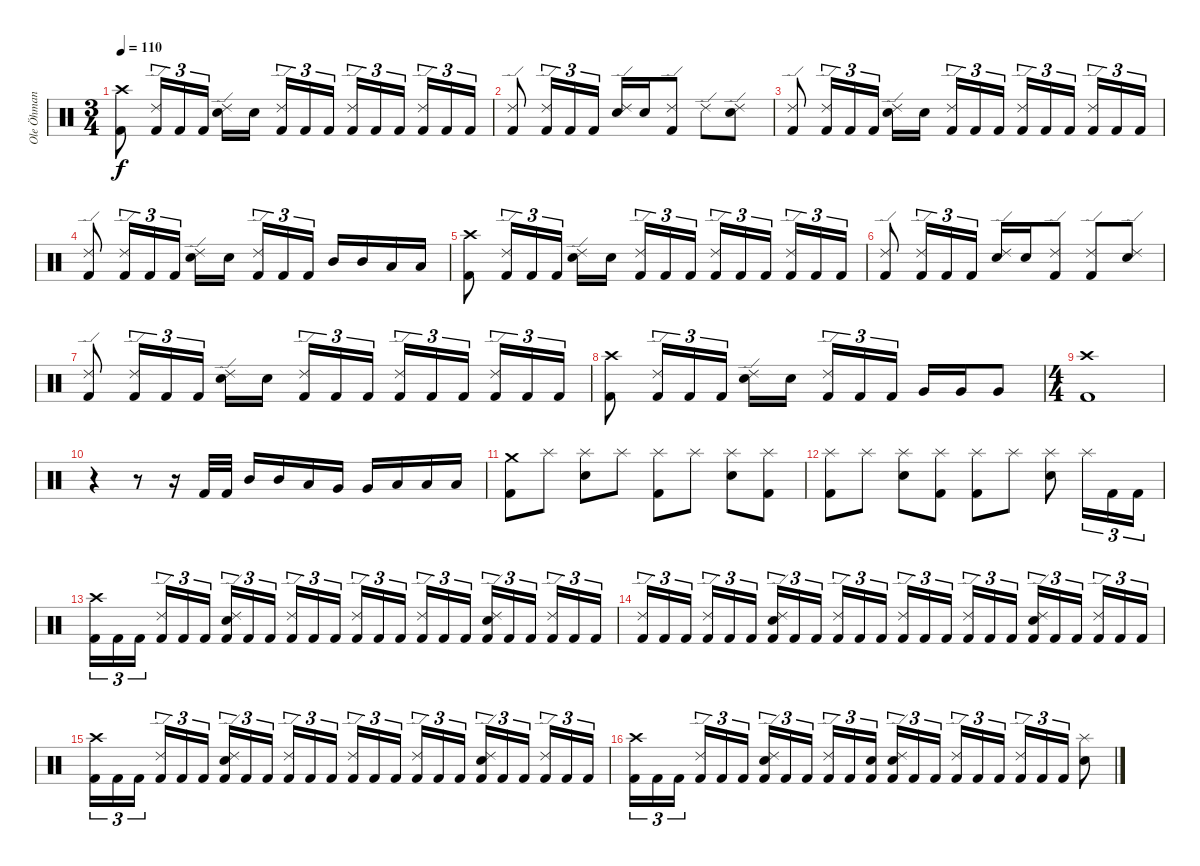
\track ("Ole Öhman" "Ole Öhman") {instrument percussion}
\staff {score}
\articulation defaults
\ts (3 4)
\tempo 110
\clef neutral
\ks c
("Crash high (hit)" "Kick (hit) 2").8{dy f} ("Ride (edge) 2" "Kick (hit) 2").16{tu (3 2)} "Kick (hit) 2".16{tu (3 2)} "Kick (hit) 2".16{tu (3 2)} ("Ride (edge) 2" "Electric Snare (hit)").16 "Electric Snare (hit)".16 ("Ride (edge) 2" "Kick (hit) 2").16{tu (3 2)} "Kick (hit) 2".16{tu (3 2)} "Kick (hit) 2".16{tu (3 2)} ("Ride (edge) 2" "Kick (hit) 2").16{tu (3 2)} "Kick (hit) 2".16{tu (3 2)} "Kick (hit) 2".16{tu (3 2)} ("Ride (edge) 2" "Kick (hit) 2").16{tu (3 2)} "Kick (hit) 2".16{tu (3 2)} "Kick (hit) 2".16{tu (3 2)} |
("Ride (edge) 2" "Kick (hit) 2").8 ("Ride (edge) 2" "Kick (hit) 2").16{tu (3 2)} "Kick (hit) 2".16{tu (3 2)} "Kick (hit) 2".16{tu (3 2)} ("Ride (edge) 2" "Electric Snare (hit)").16 "Electric Snare (hit)".16 ("Ride (edge) 2" "Kick (hit) 2").8 "Ride (edge) 2".8 ("Ride (edge) 2" "Electric Snare (hit)").8 |
("Ride (edge) 2" "Kick (hit) 2").8 ("Ride (edge) 2" "Kick (hit) 2").16{tu (3 2)} "Kick (hit) 2".16{tu (3 2)} "Kick (hit) 2".16{tu (3 2)} ("Ride (edge) 2" "Electric Snare (hit)").16 "Electric Snare (hit)".16 ("Ride (edge) 2" "Kick (hit) 2").16{tu (3 2)} "Kick (hit) 2".16{tu (3 2)} "Kick (hit) 2".16{tu (3 2)} ("Ride (edge) 2" "Kick (hit) 2").16{tu (3 2)} "Kick (hit) 2".16{tu (3 2)} "Kick (hit) 2".16{tu (3 2)} ("Ride (edge) 2" "Kick (hit) 2").16{tu (3 2)} "Kick (hit) 2".16{tu (3 2)} "Kick (hit) 2".16{tu (3 2)} |
("Ride (edge) 2" "Kick (hit) 2").8 ("Ride (edge) 2" "Kick (hit) 2").16{tu (3 2)} "Kick (hit) 2".16{tu (3 2)} "Kick (hit) 2".16{tu (3 2)} ("Ride (edge) 2" "Electric Snare (hit)").16 "Electric Snare (hit)".16 ("Ride (edge) 2" "Kick (hit) 2").16{tu (3 2)} "Kick (hit) 2".16{tu (3 2)} "Kick (hit) 2".16{tu (3 2)} "Mid Tom (hit)".16 "Mid Tom (hit)".16 "Low Tom (hit)".16 "Low Tom (hit)".16 |
("Crash high (hit)" "Kick (hit) 2").8 ("Ride (edge) 2" "Kick (hit) 2").16{tu (3 2)} "Kick (hit) 2".16{tu (3 2)} "Kick (hit) 2".16{tu (3 2)} ("Ride (edge) 2" "Electric Snare (hit)").16 "Electric Snare (hit)".16 ("Ride (edge) 2" "Kick (hit) 2").16{tu (3 2)} "Kick (hit) 2".16{tu (3 2)} "Kick (hit) 2".16{tu (3 2)} ("Ride (edge) 2" "Kick (hit) 2").16{tu (3 2)} "Kick (hit) 2".16{tu (3 2)} "Kick (hit) 2".16{tu (3 2)} ("Ride (edge) 2" "Kick (hit) 2").16{tu (3 2)} "Kick (hit) 2".16{tu (3 2)} "Kick (hit) 2".16{tu (3 2)} |
("Ride (edge) 2" "Kick (hit) 2").8 ("Ride (edge) 2" "Kick (hit) 2").16{tu (3 2)} "Kick (hit) 2".16{tu (3 2)} "Kick (hit) 2".16{tu (3 2)} ("Ride (edge) 2" "Electric Snare (hit)").16 "Electric Snare (hit)".16 ("Ride (edge) 2" "Kick (hit) 2").8 ("Ride (edge) 2" "Kick (hit) 2").8 ("Ride (edge) 2" "Electric Snare (hit)").8 |
("Ride (edge) 2" "Kick (hit) 2").8 ("Ride (edge) 2" "Kick (hit) 2").16{tu (3 2)} "Kick (hit) 2".16{tu (3 2)} "Kick (hit) 2".16{tu (3 2)} ("Ride (edge) 2" "Electric Snare (hit)").16 "Electric Snare (hit)".16 ("Ride (edge) 2" "Kick (hit) 2").16{tu (3 2)} "Kick (hit) 2".16{tu (3 2)} "Kick (hit) 2".16{tu (3 2)} ("Ride (edge) 2" "Kick (hit) 2").16{tu (3 2)} "Kick (hit) 2".16{tu (3 2)} "Kick (hit) 2".16{tu (3 2)} ("Ride (edge) 2" "Kick (hit) 2").16{tu (3 2)} "Kick (hit) 2".16{tu (3 2)} "Kick (hit) 2".16{tu (3 2)} |
("Crash high (hit)" "Kick (hit) 2").8 ("Ride (edge) 2" "Kick (hit) 2").16{tu (3 2)} "Kick (hit) 2".16{tu (3 2)} "Kick (hit) 2".16{tu (3 2)} ("Ride (edge) 2" "Electric Snare (hit)").16 "Electric Snare (hit)".16 ("Ride (edge) 2" "Kick (hit) 2").16{tu (3 2)} "Kick (hit) 2".16{tu (3 2)} "Kick (hit) 2".16{tu (3 2)} "Very Low Tom (hit)".16 "Very Low Tom (hit)".16 "Very Low Tom (hit)".8 |
\ts (4 4)
("Crash high (hit)" "Kick (hit) 2").1 |
r.4 r.8 r.16 "Kick (hit) 2".32 "Kick (hit) 2".32 "Mid Tom (hit)".16 "Mid Tom (hit)".16 "Low Tom (hit)".16 "Very Low Tom (hit)".16 "Very Low Tom (hit)".16 "Low Floor Tom (hit)".16 "Low Floor Tom (hit)".16 "Low Floor Tom (hit)".16 |
("Crash medium (hit)" "Kick (hit) 2").8 "Splash (hit)".8 ("Splash (hit)" "Electric Snare (hit)").8 "Splash (hit)".8 ("Splash (hit)" "Kick (hit) 2").8 "Splash (hit)".8 ("Splash (hit)" "Electric Snare (hit)").8 ("Splash (hit)" "Kick (hit) 2").8 |
("Splash (hit)" "Kick (hit) 2").8 "Splash (hit)".8 ("Splash (hit)" "Electric Snare (hit)").8 ("Splash (hit)" "Kick (hit) 2").8 ("Splash (hit)" "Kick (hit) 2").8 "Splash (hit)".8 ("Splash (hit)" "Electric Snare (hit)").8 "Splash (hit)".16{tu (3 2)} "Kick (hit) 2".16{tu (3 2)} "Kick (hit) 2".16{tu (3 2)} |
("Crash high (hit)" "Kick (hit) 2").16{tu (3 2)} "Kick (hit) 2".16{tu (3 2)} "Kick (hit) 2".16{tu (3 2)} ("Ride (edge) 2" "Kick (hit) 2").16{tu (3 2)} "Kick (hit) 2".16{tu (3 2)} "Kick (hit) 2".16{tu (3 2)} ("Ride (edge) 2" "Electric Snare (hit)" "Kick (hit) 2").16{tu (3 2)} "Kick (hit) 2".16{tu (3 2)} "Kick (hit) 2".16{tu (3 2)} ("Ride (edge) 2" "Kick (hit) 2").16{tu (3 2)} "Kick (hit) 2".16{tu (3 2)} "Kick (hit) 2".16{tu (3 2)} ("Ride (edge) 2" "Kick (hit) 2").16{tu (3 2)} "Kick (hit) 2".16{tu (3 2)} "Kick (hit) 2".16{tu (3 2)} ("Ride (edge) 2" "Kick (hit) 2").16{tu (3 2)} "Kick (hit) 2".16{tu (3 2)} "Kick (hit) 2".16{tu (3 2)} ("Ride (edge) 2" "Electric Snare (hit)" "Kick (hit) 2").16{tu (3 2)} "Kick (hit) 2".16{tu (3 2)} "Kick (hit) 2".16{tu (3 2)} ("Ride (edge) 2" "Kick (hit) 2").16{tu (3 2)} "Kick (hit) 2".16{tu (3 2)} "Kick (hit) 2".16{tu (3 2)} |
("Ride (edge) 2" "Kick (hit) 2").16{tu (3 2)} "Kick (hit) 2".16{tu (3 2)} "Kick (hit) 2".16{tu (3 2)} ("Ride (edge) 2" "Kick (hit) 2").16{tu (3 2)} "Kick (hit) 2".16{tu (3 2)} "Kick (hit) 2".16{tu (3 2)} ("Ride (edge) 2" "Electric Snare (hit)" "Kick (hit) 2").16{tu (3 2)} "Kick (hit) 2".16{tu (3 2)} "Kick (hit) 2".16{tu (3 2)} ("Ride (edge) 2" "Kick (hit) 2").16{tu (3 2)} "Kick (hit) 2".16{tu (3 2)} "Kick (hit) 2".16{tu (3 2)} ("Ride (edge) 2" "Kick (hit) 2").16{tu (3 2)} "Kick (hit) 2".16{tu (3 2)} "Kick (hit) 2".16{tu (3 2)} ("Ride (edge) 2" "Kick (hit) 2").16{tu (3 2)} "Kick (hit) 2".16{tu (3 2)} "Kick (hit) 2".16{tu (3 2)} ("Ride (edge) 2" "Electric Snare (hit)" "Kick (hit) 2").16{tu (3 2)} "Kick (hit) 2".16{tu (3 2)} "Kick (hit) 2".16{tu (3 2)} ("Ride (edge) 2" "Kick (hit) 2").16{tu (3 2)} "Kick (hit) 2".16{tu (3 2)} "Kick (hit) 2".16{tu (3 2)} |
("Crash high (hit)" "Kick (hit) 2").16{tu (3 2)} "Kick (hit) 2".16{tu (3 2)} "Kick (hit) 2".16{tu (3 2)} ("Ride (edge) 2" "Kick (hit) 2").16{tu (3 2)} "Kick (hit) 2".16{tu (3 2)} "Kick (hit) 2".16{tu (3 2)} ("Ride (edge) 2" "Electric Snare (hit)" "Kick (hit) 2").16{tu (3 2)} "Kick (hit) 2".16{tu (3 2)} "Kick (hit) 2".16{tu (3 2)} ("Ride (edge) 2" "Kick (hit) 2").16{tu (3 2)} "Kick (hit) 2".16{tu (3 2)} "Kick (hit) 2".16{tu (3 2)} ("Ride (edge) 2" "Kick (hit) 2").16{tu (3 2)} "Kick (hit) 2".16{tu (3 2)} "Kick (hit) 2".16{tu (3 2)} ("Ride (edge) 2" "Kick (hit) 2").16{tu (3 2)} "Kick (hit) 2".16{tu (3 2)} "Kick (hit) 2".16{tu (3 2)} ("Ride (edge) 2" "Electric Snare (hit)" "Kick (hit) 2").16{tu (3 2)} "Kick (hit) 2".16{tu (3 2)} "Kick (hit) 2".16{tu (3 2)} ("Ride (edge) 2" "Kick (hit) 2").16{tu (3 2)} "Kick (hit) 2".16{tu (3 2)} "Kick (hit) 2".16{tu (3 2)} |
("Crash high (hit)" "Kick (hit) 2").16{tu (3 2)} "Kick (hit) 2".16{tu (3 2)} "Kick (hit) 2".16{tu (3 2)} ("Ride (edge) 2" "Kick (hit) 2").16{tu (3 2)} "Kick (hit) 2".16{tu (3 2)} "Kick (hit) 2".16{tu (3 2)} ("Ride (edge) 2" "Electric Snare (hit)" "Kick (hit) 2").16{tu (3 2)} "Kick (hit) 2".16{tu (3 2)} "Kick (hit) 2".16{tu (3 2)} ("Ride (edge) 2" "Kick (hit) 2").16{tu (3 2)} "Kick (hit) 2".16{tu (3 2)} ("Electric Snare (hit)" "Kick (hit) 2").16{tu (3 2)} ("Ride (edge) 2" "Electric Snare (hit)" "Kick (hit) 2").16{tu (3 2)} "Kick (hit) 2".16{tu (3 2)} "Kick (hit) 2".16{tu (3 2)} ("Ride (edge) 2" "Kick (hit) 2").16{tu (3 2)} "Kick (hit) 2".16{tu (3 2)} "Kick (hit) 2".16{tu (3 2)} ("Ride (edge) 2" "Kick (hit) 2").16{tu (3 2)} "Kick (hit) 2".16{tu (3 2)} "Kick (hit) 2".16{tu (3 2)} ("Splash (hit)" "Electric Snare (hit)").8
